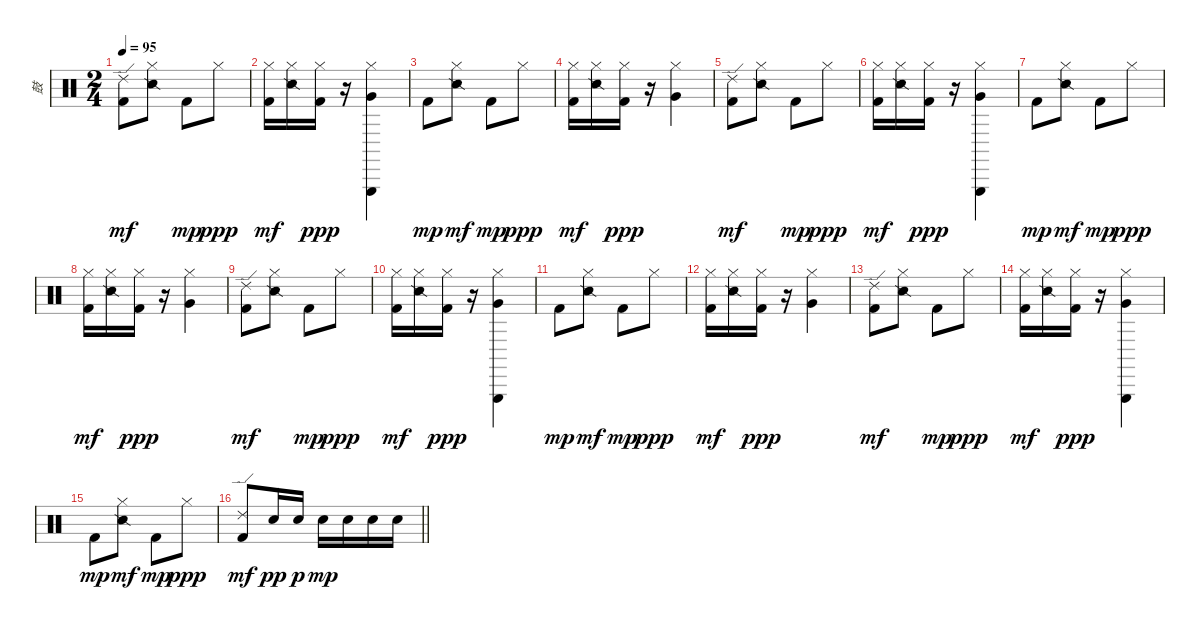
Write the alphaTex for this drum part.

\track ("鼓" "鼓") {instrument percussion}
\staff {score}
\articulation defaults
\ts (2 4)
\tempo 95
\clef neutral
\ks c
("Kick (hit) 2" "Ride (edge) 2").8{dy mf} ("Snare (side stick) 2" "Hi-Hat (closed)").8 "Kick (hit) 2".8{dy mp} "Hi-Hat (closed)".8{dy ppp} |
("Kick (hit) 2" "Hi-Hat (closed)").16{dy mf} ("Snare (side stick) 2" "Hi-Hat (closed)").16 ("Kick (hit) 2" "Hi-Hat (closed)").16{dy ppp} r.16 ("Triangle (hit)" "Very Low Tom (hit)" "Hi-Hat (closed)").4 |
"Kick (hit) 2".8{dy mp} ("Snare (side stick) 2" "Hi-Hat (closed)").8{dy mf} "Kick (hit) 2".8{dy mp} "Hi-Hat (closed)".8{dy ppp} |
("Kick (hit) 2" "Hi-Hat (closed)").16{dy mf} ("Snare (side stick) 2" "Hi-Hat (closed)").16 ("Kick (hit) 2" "Hi-Hat (closed)").16{dy ppp} r.16 ("Very Low Tom (hit)" "Hi-Hat (closed)").4 |
("Kick (hit) 2" "Ride (edge) 2").8{dy mf} ("Snare (side stick) 2" "Hi-Hat (closed)").8 "Kick (hit) 2".8{dy mp} "Hi-Hat (closed)".8{dy ppp} |
("Kick (hit) 2" "Hi-Hat (closed)").16{dy mf} ("Snare (side stick) 2" "Hi-Hat (closed)").16 ("Kick (hit) 2" "Hi-Hat (closed)").16{dy ppp} r.16 ("Triangle (hit)" "Very Low Tom (hit)" "Hi-Hat (closed)").4 |
"Kick (hit) 2".8{dy mp} ("Snare (side stick) 2" "Hi-Hat (closed)").8{dy mf} "Kick (hit) 2".8{dy mp} "Hi-Hat (closed)".8{dy ppp} |
("Kick (hit) 2" "Hi-Hat (closed)").16{dy mf} ("Snare (side stick) 2" "Hi-Hat (closed)").16 ("Kick (hit) 2" "Hi-Hat (closed)").16{dy ppp} r.16 ("Very Low Tom (hit)" "Hi-Hat (closed)").4 |
("Kick (hit) 2" "Ride (edge) 2").8{dy mf} ("Snare (side stick) 2" "Hi-Hat (closed)").8 "Kick (hit) 2".8{dy mp} "Hi-Hat (closed)".8{dy ppp} |
("Kick (hit) 2" "Hi-Hat (closed)").16{dy mf} ("Snare (side stick) 2" "Hi-Hat (closed)").16 ("Kick (hit) 2" "Hi-Hat (closed)").16{dy ppp} r.16 ("Triangle (hit)" "Very Low Tom (hit)" "Hi-Hat (closed)").4 |
"Kick (hit) 2".8{dy mp} ("Snare (side stick) 2" "Hi-Hat (closed)").8{dy mf} "Kick (hit) 2".8{dy mp} "Hi-Hat (closed)".8{dy ppp} |
("Kick (hit) 2" "Hi-Hat (closed)").16{dy mf} ("Snare (side stick) 2" "Hi-Hat (closed)").16 ("Kick (hit) 2" "Hi-Hat (closed)").16{dy ppp} r.16 ("Very Low Tom (hit)" "Hi-Hat (closed)").4 |
("Kick (hit) 2" "Ride (edge) 2").8{dy mf} ("Snare (side stick) 2" "Hi-Hat (closed)").8 "Kick (hit) 2".8{dy mp} "Hi-Hat (closed)".8{dy ppp} |
("Kick (hit) 2" "Hi-Hat (closed)").16{dy mf} ("Snare (side stick) 2" "Hi-Hat (closed)").16 ("Kick (hit) 2" "Hi-Hat (closed)").16{dy ppp} r.16 ("Triangle (hit)" "Very Low Tom (hit)" "Hi-Hat (closed)").4 |
"Kick (hit) 2".8{dy mp} ("Snare (side stick) 2" "Hi-Hat (closed)").8{dy mf} "Kick (hit) 2".8{dy mp} "Hi-Hat (closed)".8{dy ppp} |
\barLineRight lightlight
("Kick (hit) 2" "Ride (edge) 2").8{dy mf} "Electric Snare (hit)".16{dy pp} "Electric Snare (hit)".16{dy p} "Electric Snare (hit)".16{dy mp} "Electric Snare (hit)".16 "Electric Snare (hit)".16 "Electric Snare (hit)".16
